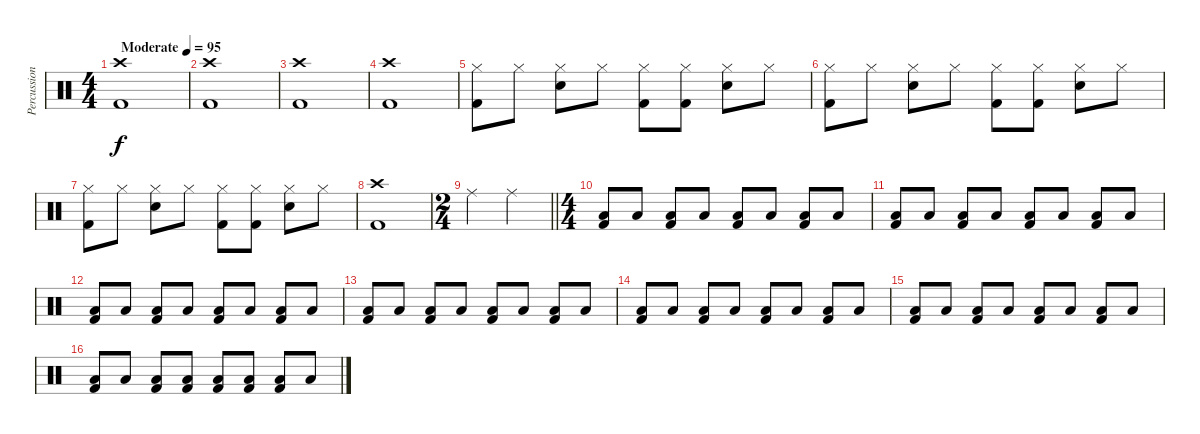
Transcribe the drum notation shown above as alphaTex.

\track ("Percussion" "Percussion") {instrument percussion}
\staff {score}
\articulation defaults
\ts (4 4)
\tempo (95 "Moderate")
\clef neutral
\ks c
("Kick (hit) 2" "Crash high (hit)").1{dy f} |
("Kick (hit) 2" "Crash high (hit)").1 |
("Kick (hit) 2" "Crash high (hit)").1 |
("Kick (hit) 2" "Crash high (hit)").1 |
("Hi-Hat (closed)" "Kick (hit) 2").8 "Hi-Hat (closed)".8 ("Hi-Hat (closed)" "Snare (hit) 2").8 "Hi-Hat (closed)".8 ("Hi-Hat (closed)" "Kick (hit) 2").8 ("Hi-Hat (closed)" "Kick (hit) 2").8 ("Hi-Hat (closed)" "Snare (hit) 2").8 "Hi-Hat (closed)".8 |
("Hi-Hat (closed)" "Kick (hit) 2").8 "Hi-Hat (closed)".8 ("Hi-Hat (closed)" "Snare (hit) 2").8 "Hi-Hat (closed)".8 ("Hi-Hat (closed)" "Kick (hit) 2").8 ("Hi-Hat (closed)" "Kick (hit) 2").8 ("Hi-Hat (closed)" "Snare (hit) 2").8 "Hi-Hat (closed)".8 |
("Hi-Hat (closed)" "Kick (hit) 2").8 "Hi-Hat (closed)".8 ("Hi-Hat (closed)" "Snare (hit) 2").8 "Hi-Hat (closed)".8 ("Hi-Hat (closed)" "Kick (hit) 2").8 ("Hi-Hat (closed)" "Kick (hit) 2").8 ("Hi-Hat (closed)" "Snare (hit) 2").8 "Hi-Hat (closed)".8 |
("Kick (hit) 2" "Crash high (hit)").1 |
\ts (2 4)
\barLineRight lightlight "Ride (middle)".4 "Ride (middle)".4
|
\ts (4 4)
("Low Floor Tom (hit)" "Kick (hit) 2").8 "Low Floor Tom (hit)".8 ("Low Floor Tom (hit)" "Kick (hit) 2").8 "Low Floor Tom (hit)".8 ("Low Floor Tom (hit)" "Kick (hit) 2").8 "Low Floor Tom (hit)".8 ("Low Floor Tom (hit)" "Kick (hit) 2").8 "Low Floor Tom (hit)".8 |
("Low Floor Tom (hit)" "Kick (hit) 2").8 "Low Floor Tom (hit)".8 ("Low Floor Tom (hit)" "Kick (hit) 2").8 "Low Floor Tom (hit)".8 ("Low Floor Tom (hit)" "Kick (hit) 2").8 "Low Floor Tom (hit)".8 ("Low Floor Tom (hit)" "Kick (hit) 2").8 "Low Floor Tom (hit)".8 |
("Low Floor Tom (hit)" "Kick (hit) 2").8 "Low Floor Tom (hit)".8 ("Low Floor Tom (hit)" "Kick (hit) 2").8 "Low Floor Tom (hit)".8 ("Low Floor Tom (hit)" "Kick (hit) 2").8 "Low Floor Tom (hit)".8 ("Low Floor Tom (hit)" "Kick (hit) 2").8 "Low Floor Tom (hit)".8 |
("Low Floor Tom (hit)" "Kick (hit) 2").8 "Low Floor Tom (hit)".8 ("Low Floor Tom (hit)" "Kick (hit) 2").8 "Low Floor Tom (hit)".8 ("Low Floor Tom (hit)" "Kick (hit) 2").8 "Low Floor Tom (hit)".8 ("Low Floor Tom (hit)" "Kick (hit) 2").8 "Low Floor Tom (hit)".8 |
("Low Floor Tom (hit)" "Kick (hit) 2").8 "Low Floor Tom (hit)".8 ("Low Floor Tom (hit)" "Kick (hit) 2").8 "Low Floor Tom (hit)".8 ("Low Floor Tom (hit)" "Kick (hit) 2").8 "Low Floor Tom (hit)".8 ("Low Floor Tom (hit)" "Kick (hit) 2").8 "Low Floor Tom (hit)".8 |
("Low Floor Tom (hit)" "Kick (hit) 2").8 "Low Floor Tom (hit)".8 ("Low Floor Tom (hit)" "Kick (hit) 2").8 "Low Floor Tom (hit)".8 ("Low Floor Tom (hit)" "Kick (hit) 2").8 "Low Floor Tom (hit)".8 ("Low Floor Tom (hit)" "Kick (hit) 2").8 "Low Floor Tom (hit)".8 |
("Low Floor Tom (hit)" "Kick (hit) 2").8 "Low Floor Tom (hit)".8 ("Low Floor Tom (hit)" "Kick (hit) 2").8 ("Low Floor Tom (hit)" "Kick (hit) 2").8 ("Low Floor Tom (hit)" "Kick (hit) 2").8 ("Low Floor Tom (hit)" "Kick (hit) 2").8 ("Low Floor Tom (hit)" "Kick (hit) 2").8 "Low Floor Tom (hit)".8
